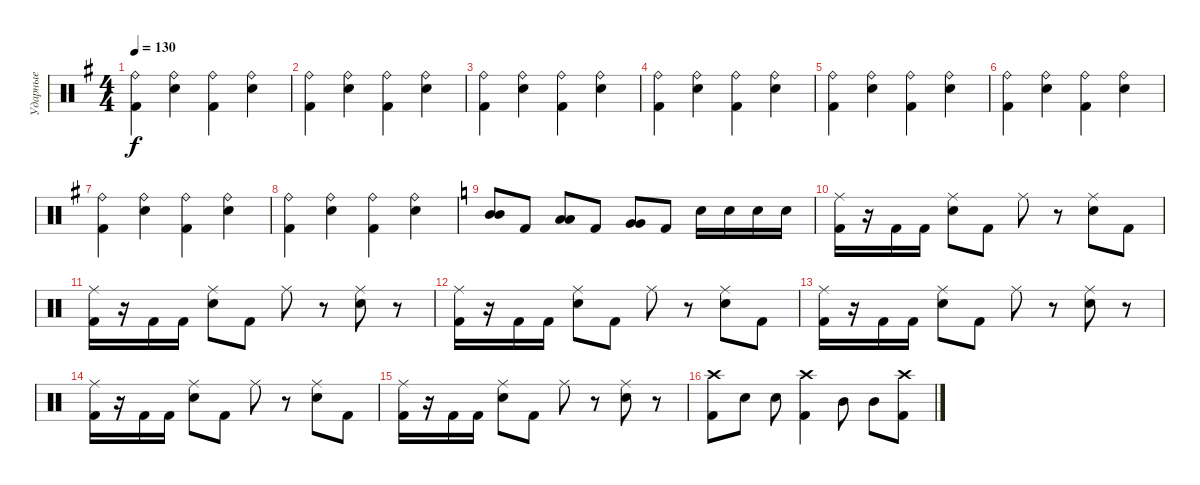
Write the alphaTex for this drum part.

\track ("Ударные" "Ударные") {instrument percussion}
\staff {score}
\articulation defaults
\ts (4 4)
\tempo 130
\clef neutral
\ks eminor
("Kick (hit) 2" "Ride (bell)").4{dy f} ("Electric Snare (hit)" "Ride (bell)").4 ("Kick (hit) 2" "Ride (bell)").4 ("Electric Snare (hit)" "Ride (bell)").4 |
("Kick (hit) 2" "Ride (bell)").4 ("Electric Snare (hit)" "Ride (bell)").4 ("Kick (hit) 2" "Ride (bell)").4 ("Electric Snare (hit)" "Ride (bell)").4 |
("Kick (hit) 2" "Ride (bell)").4 ("Electric Snare (hit)" "Ride (bell)").4 ("Kick (hit) 2" "Ride (bell)").4 ("Electric Snare (hit)" "Ride (bell)").4 |
("Kick (hit) 2" "Ride (bell)").4 ("Electric Snare (hit)" "Ride (bell)").4 ("Kick (hit) 2" "Ride (bell)").4 ("Electric Snare (hit)" "Ride (bell)").4 |
("Kick (hit) 2" "Ride (bell)").4 ("Electric Snare (hit)" "Ride (bell)").4 ("Kick (hit) 2" "Ride (bell)").4 ("Electric Snare (hit)" "Ride (bell)").4 |
("Kick (hit) 2" "Ride (bell)").4 ("Electric Snare (hit)" "Ride (bell)").4 ("Kick (hit) 2" "Ride (bell)").4 ("Electric Snare (hit)" "Ride (bell)").4 |
("Kick (hit) 2" "Ride (bell)").4 ("Electric Snare (hit)" "Ride (bell)").4 ("Kick (hit) 2" "Ride (bell)").4 ("Electric Snare (hit)" "Ride (bell)").4 |
("Kick (hit) 2" "Ride (bell)").4 ("Electric Snare (hit)" "Ride (bell)").4 ("Kick (hit) 2" "Ride (bell)").4 ("Electric Snare (hit)" "Ride (bell)").4 |
\ks c
("Mid Tom (hit)" "Mid Tom (hit)").8 "Kick (hit) 2".8 ("Low Tom (hit)" "Low Tom (hit)").8 "Kick (hit) 2".8 ("Very Low Tom (hit)" "Very Low Tom (hit)").8 "Kick (hit) 2".8 "Electric Snare (hit)".16 "Electric Snare (hit)".16 "Electric Snare (hit)".16 "Electric Snare (hit)".16 |
("Kick (hit) 2" "Ride (middle)").16 r.16 "Kick (hit) 2".16 "Kick (hit) 2".16 ("Electric Snare (hit)" "Ride (middle)").8 "Kick (hit) 2".8 "Ride (middle)".8 r.8 ("Electric Snare (hit)" "Ride (middle)").8 "Kick (hit) 2".8 |
("Kick (hit) 2" "Ride (middle)").16 r.16 "Kick (hit) 2".16 "Kick (hit) 2".16 ("Electric Snare (hit)" "Ride (middle)").8 "Kick (hit) 2".8 "Ride (middle)".8 r.8 ("Electric Snare (hit)" "Ride (middle)").8 r.8 |
("Kick (hit) 2" "Ride (middle)").16 r.16 "Kick (hit) 2".16 "Kick (hit) 2".16 ("Electric Snare (hit)" "Ride (middle)").8 "Kick (hit) 2".8 "Ride (middle)".8 r.8 ("Electric Snare (hit)" "Ride (middle)").8 "Kick (hit) 2".8 |
("Kick (hit) 2" "Ride (middle)").16 r.16 "Kick (hit) 2".16 "Kick (hit) 2".16 ("Electric Snare (hit)" "Ride (middle)").8 "Kick (hit) 2".8 "Ride (middle)".8 r.8 ("Electric Snare (hit)" "Ride (middle)").8 r.8 |
("Kick (hit) 2" "Ride (middle)").16 r.16 "Kick (hit) 2".16 "Kick (hit) 2".16 ("Electric Snare (hit)" "Ride (middle)").8 "Kick (hit) 2".8 "Ride (middle)".8 r.8 ("Electric Snare (hit)" "Ride (middle)").8 "Kick (hit) 2".8 |
("Kick (hit) 2" "Ride (middle)").16 r.16 "Kick (hit) 2".16 "Kick (hit) 2".16 ("Electric Snare (hit)" "Ride (middle)").8 "Kick (hit) 2".8 "Ride (middle)".8 r.8 ("Electric Snare (hit)" "Ride (middle)").8 r.8 |
("Kick (hit) 2" "Crash high (hit)").8 "Electric Snare (hit)".8 "Electric Snare (hit)".8 ("Kick (hit) 2" "Crash high (hit)").4 "Mid Tom (hit)".8 "Mid Tom (hit)".8 ("Kick (hit) 2" "Crash high (hit)").8
